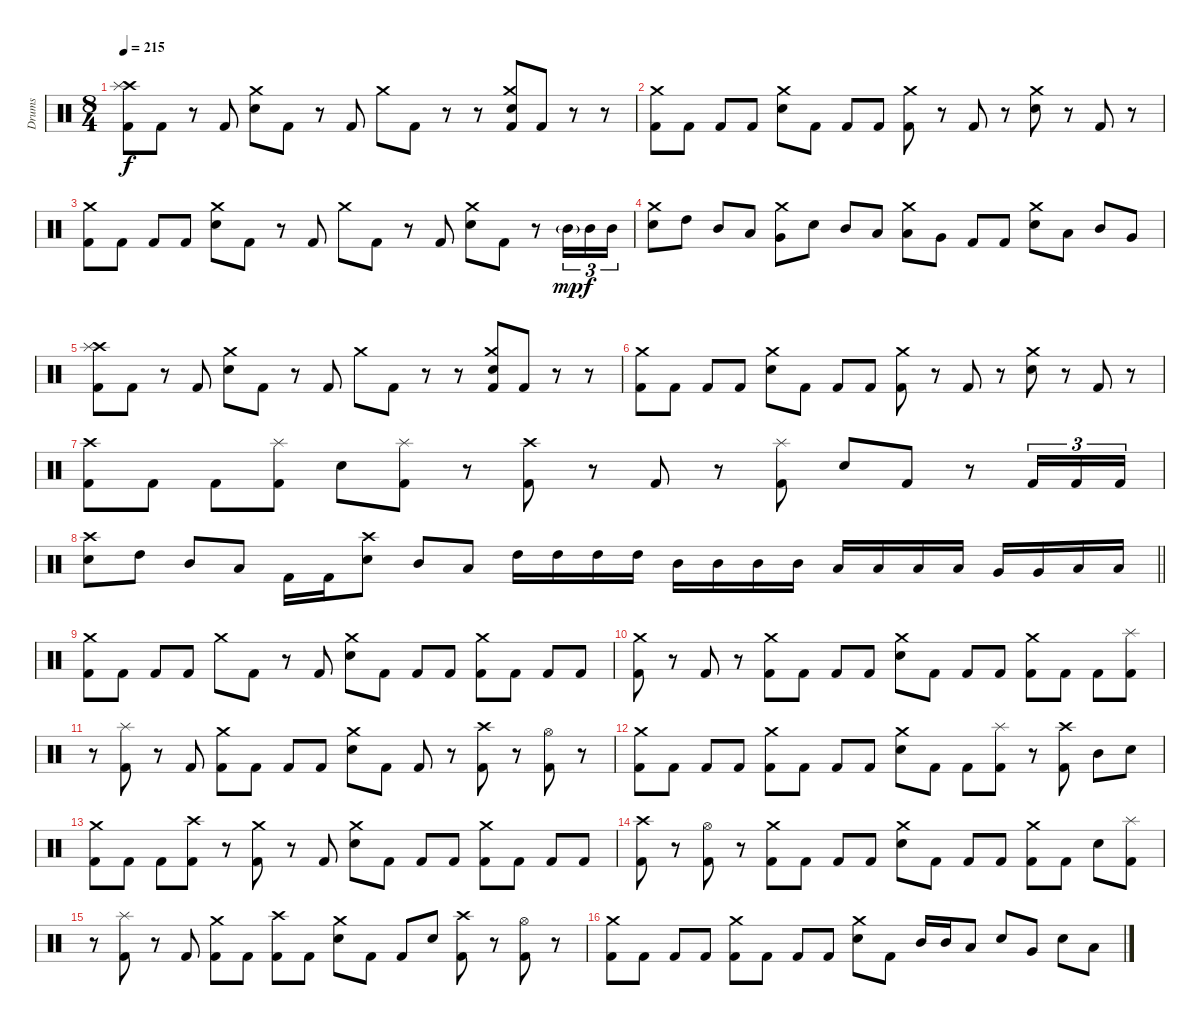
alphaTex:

\track ("Drums" "Drums") {instrument percussion}
\staff {score}
\articulation defaults
\ts (8 4)
\section ("" "")
\tempo 215
\clef neutral
\ks c
("Crash high (hit)" "Splash (hit)" "Kick (hit) 2").8{dy f} "Kick (hit) 2".8 r.8 "Kick (hit) 2".8 ("Crash medium (hit)" "Electric Snare (hit)").8 "Kick (hit) 2".8 r.8 "Kick (hit) 2".8 "Crash medium (hit)".8 "Kick (hit) 2".8 r.8 r.8 ("Crash medium (hit)" "Electric Snare (hit)" "Kick (hit) 2").8 "Kick (hit) 2".8 r.8 r.8 |
("Crash medium (hit)" "Kick (hit) 2").8 "Kick (hit) 2".8 "Kick (hit) 2".8 "Kick (hit) 2".8 ("Crash medium (hit)" "Electric Snare (hit)").8 "Kick (hit) 2".8 "Kick (hit) 2".8 "Kick (hit) 2".8 ("Crash medium (hit)" "Kick (hit) 2").8 r.8 "Kick (hit) 2".8 r.8 ("Crash medium (hit)" "Electric Snare (hit)").8 r.8 "Kick (hit) 2".8 r.8 |
("Crash medium (hit)" "Kick (hit) 2").8 "Kick (hit) 2".8 "Kick (hit) 2".8 "Kick (hit) 2".8 ("Crash medium (hit)" "Electric Snare (hit)").8 "Kick (hit) 2".8 r.8 "Kick (hit) 2".8 "Crash medium (hit)".8 "Kick (hit) 2".8 r.8 "Kick (hit) 2".8 ("Crash medium (hit)" "Electric Snare (hit)").8 "Kick (hit) 2".8 r.8 "Mid Tom (hit)"{g}.16{tu (3 2) dy mp} "Mid Tom (hit)".16{tu (3 2) dy f} "Mid Tom (hit)".16{tu (3 2)} |
("Crash medium (hit)" "Electric Snare (hit)").8 "High Tom (hit)".8 "Mid Tom (hit)".8 "Low Tom (hit)".8 ("Crash medium (hit)" "Very Low Tom (hit)").8 "Electric Snare (hit)".8 "Mid Tom (hit)".8 "Low Tom (hit)".8 ("Crash medium (hit)" "Low Floor Tom (hit)").8 "Very Low Tom (hit)".8 "Kick (hit) 2".8 "Kick (hit) 2".8 ("Crash medium (hit)" "Electric Snare (hit)").8 "Low Floor Tom (hit)".8 "Mid Tom (hit)".8 "Very Low Tom (hit)".8 |
("Crash high (hit)" "Splash (hit)" "Kick (hit) 2").8 "Kick (hit) 2".8 r.8 "Kick (hit) 2".8 ("Crash medium (hit)" "Electric Snare (hit)").8 "Kick (hit) 2".8 r.8 "Kick (hit) 2".8 "Crash medium (hit)".8 "Kick (hit) 2".8 r.8 r.8 ("Crash medium (hit)" "Electric Snare (hit)" "Kick (hit) 2").8 "Kick (hit) 2".8 r.8 r.8 |
("Crash medium (hit)" "Kick (hit) 2").8 "Kick (hit) 2".8 "Kick (hit) 2".8 "Kick (hit) 2".8 ("Crash medium (hit)" "Electric Snare (hit)").8 "Kick (hit) 2".8 "Kick (hit) 2".8 "Kick (hit) 2".8 ("Crash medium (hit)" "Kick (hit) 2").8 r.8 "Kick (hit) 2".8 r.8 ("Crash medium (hit)" "Electric Snare (hit)").8 r.8 "Kick (hit) 2".8 r.8 |
("Crash high (hit)" "Kick (hit) 2").8 "Kick (hit) 2".8 "Kick (hit) 2".8 ("Splash (hit)" "Kick (hit) 2").8 "Electric Snare (hit)".8 ("Splash (hit)" "Kick (hit) 2").8 r.8 ("Crash high (hit)" "Kick (hit) 2").8 r.8 "Kick (hit) 2".8 r.8 ("Splash (hit)" "Kick (hit) 2").8 "Electric Snare (hit)".8 "Kick (hit) 2".8 r.8 "Kick (hit) 2".16{tu (3 2)} "Kick (hit) 2".16{tu (3 2)} "Kick (hit) 2".16{tu (3 2)} |
\barLineRight lightlight
("Crash high (hit)" "Electric Snare (hit)").8 "High Tom (hit)".8 "Mid Tom (hit)".8 "Low Tom (hit)".8 "Kick (hit) 2".16 "Kick (hit) 2".16 ("Crash high (hit)" "Electric Snare (hit)").8 "Mid Tom (hit)".8 "Low Tom (hit)".8 "High Tom (hit)".16 "High Tom (hit)".16 "High Tom (hit)".16 "High Tom (hit)".16 "Mid Tom (hit)".16 "Mid Tom (hit)".16 "Mid Tom (hit)".16 "Mid Tom (hit)".16 "Low Tom (hit)".16 "Low Tom (hit)".16 "Low Tom (hit)".16 "Low Tom (hit)".16 "Very Low Tom (hit)".16 "Very Low Tom (hit)".16 "Low Floor Tom (hit)".16 "Low Floor Tom (hit)".16 |
\section ("" "")
("Crash medium (hit)" "Kick (hit) 2").8 "Kick (hit) 2".8 "Kick (hit) 2".8 "Kick (hit) 2".8 "Crash medium (hit)".8 "Kick (hit) 2".8 r.8 "Kick (hit) 2".8 ("Crash medium (hit)" "Electric Snare (hit)").8 "Kick (hit) 2".8 "Kick (hit) 2".8 "Kick (hit) 2".8 ("Crash medium (hit)" "Kick (hit) 2").8 "Kick (hit) 2".8 "Kick (hit) 2".8 "Kick (hit) 2".8 |
("Crash medium (hit)" "Kick (hit) 2").8 r.8 "Kick (hit) 2".8 r.8 ("Crash medium (hit)" "Kick (hit) 2").8 "Kick (hit) 2".8 "Kick (hit) 2".8 "Kick (hit) 2".8 ("Crash medium (hit)" "Electric Snare (hit)").8 "Kick (hit) 2".8 "Kick (hit) 2".8 "Kick (hit) 2".8 ("Crash medium (hit)" "Kick (hit) 2").8 "Kick (hit) 2".8 "Kick (hit) 2".8 ("Splash (hit)" "Kick (hit) 2").8 |
r.8 ("Splash (hit)" "Kick (hit) 2").8 r.8 "Kick (hit) 2".8 ("Crash medium (hit)" "Kick (hit) 2").8 "Kick (hit) 2".8 "Kick (hit) 2".8 "Kick (hit) 2".8 ("Crash medium (hit)" "Electric Snare (hit)").8 "Kick (hit) 2".8 "Kick (hit) 2".8 r.8 ("Crash high (hit)" "Kick (hit) 2").8 r.8 ("Hi-Hat (open)" "Kick (hit) 2").8 r.8 |
("Crash medium (hit)" "Kick (hit) 2").8 "Kick (hit) 2".8 "Kick (hit) 2".8 "Kick (hit) 2".8 ("Crash medium (hit)" "Kick (hit) 2").8 "Kick (hit) 2".8 "Kick (hit) 2".8 "Kick (hit) 2".8 ("Crash medium (hit)" "Electric Snare (hit)").8 "Kick (hit) 2".8 "Kick (hit) 2".8 ("Splash (hit)" "Kick (hit) 2").8 r.8 ("Crash high (hit)" "Kick (hit) 2").8 "Mid Tom (hit)".8 "Electric Snare (hit)".8 |
("Crash medium (hit)" "Kick (hit) 2").8 "Kick (hit) 2".8 "Kick (hit) 2".8 ("Crash high (hit)" "Kick (hit) 2").8 r.8 ("Crash medium (hit)" "Kick (hit) 2").8 r.8 "Kick (hit) 2".8 ("Crash medium (hit)" "Electric Snare (hit)").8 "Kick (hit) 2".8 "Kick (hit) 2".8 "Kick (hit) 2".8 ("Crash medium (hit)" "Kick (hit) 2").8 "Kick (hit) 2".8 "Kick (hit) 2".8 "Kick (hit) 2".8 |
("Crash high (hit)" "Kick (hit) 2").8 r.8 ("Hi-Hat (open)" "Kick (hit) 2").8 r.8 ("Crash medium (hit)" "Kick (hit) 2").8 "Kick (hit) 2".8 "Kick (hit) 2".8 "Kick (hit) 2".8 ("Crash medium (hit)" "Electric Snare (hit)").8 "Kick (hit) 2".8 "Kick (hit) 2".8 "Kick (hit) 2".8 ("Crash medium (hit)" "Kick (hit) 2").8 "Kick (hit) 2".8 "Electric Snare (hit)".8 ("Splash (hit)" "Kick (hit) 2").8 |
r.8 ("Splash (hit)" "Kick (hit) 2").8 r.8 "Kick (hit) 2".8 ("Crash medium (hit)" "Kick (hit) 2").8 "Kick (hit) 2".8 ("Crash high (hit)" "Kick (hit) 2").8 "Kick (hit) 2".8 ("Crash medium (hit)" "Electric Snare (hit)").8 "Kick (hit) 2".8 "Kick (hit) 2".8 "Electric Snare (hit)".8 ("Crash high (hit)" "Kick (hit) 2").8 r.8 ("Hi-Hat (open)" "Kick (hit) 2").8 r.8 |
("Crash medium (hit)" "Kick (hit) 2").8 "Kick (hit) 2".8 "Kick (hit) 2".8 "Kick (hit) 2".8 ("Crash medium (hit)" "Kick (hit) 2").8 "Kick (hit) 2".8 "Kick (hit) 2".8 "Kick (hit) 2".8 ("Crash medium (hit)" "Electric Snare (hit)").8 "Kick (hit) 2".8 "Mid Tom (hit)".16 "Mid Tom (hit)".16 "Low Tom (hit)".8 "Electric Snare (hit)".8 "Very Low Tom (hit)".8 "Electric Snare (hit)".8 "Low Floor Tom (hit)".8
